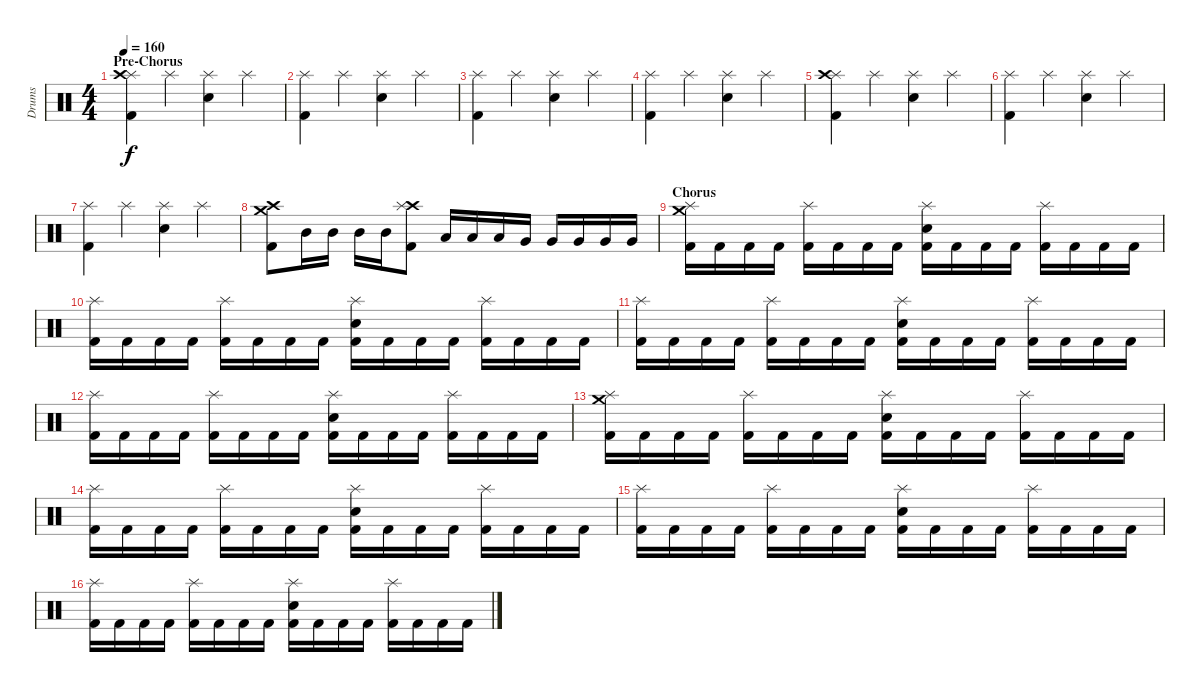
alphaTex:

\track ("Drums" "Drums") {instrument percussion}
\staff {score}
\articulation defaults
\ts (4 4)
\section ("" "Pre-Chorus")
\tempo 160
\clef neutral
\ks c
("Splash (hit)" "Crash high (hit)" "Kick (hit) 2").4{dy f} "Splash (hit)".4 ("Splash (hit)" "Snare (hit) 2").4 "Splash (hit)".4 |
("Splash (hit)" "Kick (hit) 2").4 "Splash (hit)".4 ("Splash (hit)" "Snare (hit) 2").4 "Splash (hit)".4 |
("Splash (hit)" "Kick (hit) 2").4 "Splash (hit)".4 ("Splash (hit)" "Snare (hit) 2").4 "Splash (hit)".4 |
("Splash (hit)" "Kick (hit) 2").4 "Splash (hit)".4 ("Splash (hit)" "Snare (hit) 2").4 "Splash (hit)".4 |
("Splash (hit)" "Crash high (hit)" "Kick (hit) 2").4 "Splash (hit)".4 ("Splash (hit)" "Snare (hit) 2").4 "Splash (hit)".4 |
("Splash (hit)" "Kick (hit) 2").4 "Splash (hit)".4 ("Splash (hit)" "Snare (hit) 2").4 "Splash (hit)".4 |
("Splash (hit)" "Kick (hit) 2").4 "Splash (hit)".4 ("Splash (hit)" "Snare (hit) 2").4 "Splash (hit)".4 |
("Crash medium (hit)" "Crash high (hit)" "Kick (hit) 2").8 "Mid Tom (hit)".16 "Mid Tom (hit)".16 "Mid Tom (hit)".16 "Mid Tom (hit)".16 ("Crash high (hit)" "Splash (hit)" "Kick (hit) 2").8 "Low Tom (hit)".16 "Low Tom (hit)".16 "Low Tom (hit)".16 "Very Low Tom (hit)".16 "Very Low Tom (hit)".16 "Very Low Tom (hit)".16 "Very Low Tom (hit)".16 "Very Low Tom (hit)".16 |
\section ("" "Chorus")
("Splash (hit)" "Crash medium (hit)" "Kick (hit) 2").16 "Kick (hit) 2".16 "Kick (hit) 2".16 "Kick (hit) 2".16 ("Splash (hit)" "Kick (hit) 2").16 "Kick (hit) 2".16 "Kick (hit) 2".16 "Kick (hit) 2".16 ("Splash (hit)" "Snare (hit) 2" "Kick (hit) 2").16 "Kick (hit) 2".16 "Kick (hit) 2".16 "Kick (hit) 2".16 ("Splash (hit)" "Kick (hit) 2").16 "Kick (hit) 2".16 "Kick (hit) 2".16 "Kick (hit) 2".16 |
("Splash (hit)" "Kick (hit) 2").16 "Kick (hit) 2".16 "Kick (hit) 2".16 "Kick (hit) 2".16 ("Splash (hit)" "Kick (hit) 2").16 "Kick (hit) 2".16 "Kick (hit) 2".16 "Kick (hit) 2".16 ("Splash (hit)" "Snare (hit) 2" "Kick (hit) 2").16 "Kick (hit) 2".16 "Kick (hit) 2".16 "Kick (hit) 2".16 ("Splash (hit)" "Kick (hit) 2").16 "Kick (hit) 2".16 "Kick (hit) 2".16 "Kick (hit) 2".16 |
("Splash (hit)" "Kick (hit) 2").16 "Kick (hit) 2".16 "Kick (hit) 2".16 "Kick (hit) 2".16 ("Splash (hit)" "Kick (hit) 2").16 "Kick (hit) 2".16 "Kick (hit) 2".16 "Kick (hit) 2".16 ("Splash (hit)" "Snare (hit) 2" "Kick (hit) 2").16 "Kick (hit) 2".16 "Kick (hit) 2".16 "Kick (hit) 2".16 ("Splash (hit)" "Kick (hit) 2").16 "Kick (hit) 2".16 "Kick (hit) 2".16 "Kick (hit) 2".16 |
("Splash (hit)" "Kick (hit) 2").16 "Kick (hit) 2".16 "Kick (hit) 2".16 "Kick (hit) 2".16 ("Splash (hit)" "Kick (hit) 2").16 "Kick (hit) 2".16 "Kick (hit) 2".16 "Kick (hit) 2".16 ("Splash (hit)" "Snare (hit) 2" "Kick (hit) 2").16 "Kick (hit) 2".16 "Kick (hit) 2".16 "Kick (hit) 2".16 ("Splash (hit)" "Kick (hit) 2").16 "Kick (hit) 2".16 "Kick (hit) 2".16 "Kick (hit) 2".16 |
("Splash (hit)" "Crash medium (hit)" "Kick (hit) 2").16 "Kick (hit) 2".16 "Kick (hit) 2".16 "Kick (hit) 2".16 ("Splash (hit)" "Kick (hit) 2").16 "Kick (hit) 2".16 "Kick (hit) 2".16 "Kick (hit) 2".16 ("Splash (hit)" "Snare (hit) 2" "Kick (hit) 2").16 "Kick (hit) 2".16 "Kick (hit) 2".16 "Kick (hit) 2".16 ("Splash (hit)" "Kick (hit) 2").16 "Kick (hit) 2".16 "Kick (hit) 2".16 "Kick (hit) 2".16 |
("Splash (hit)" "Kick (hit) 2").16 "Kick (hit) 2".16 "Kick (hit) 2".16 "Kick (hit) 2".16 ("Splash (hit)" "Kick (hit) 2").16 "Kick (hit) 2".16 "Kick (hit) 2".16 "Kick (hit) 2".16 ("Splash (hit)" "Snare (hit) 2" "Kick (hit) 2").16 "Kick (hit) 2".16 "Kick (hit) 2".16 "Kick (hit) 2".16 ("Splash (hit)" "Kick (hit) 2").16 "Kick (hit) 2".16 "Kick (hit) 2".16 "Kick (hit) 2".16 |
("Splash (hit)" "Kick (hit) 2").16 "Kick (hit) 2".16 "Kick (hit) 2".16 "Kick (hit) 2".16 ("Splash (hit)" "Kick (hit) 2").16 "Kick (hit) 2".16 "Kick (hit) 2".16 "Kick (hit) 2".16 ("Splash (hit)" "Snare (hit) 2" "Kick (hit) 2").16 "Kick (hit) 2".16 "Kick (hit) 2".16 "Kick (hit) 2".16 ("Splash (hit)" "Kick (hit) 2").16 "Kick (hit) 2".16 "Kick (hit) 2".16 "Kick (hit) 2".16 |
("Splash (hit)" "Kick (hit) 2").16 "Kick (hit) 2".16 "Kick (hit) 2".16 "Kick (hit) 2".16 ("Splash (hit)" "Kick (hit) 2").16 "Kick (hit) 2".16 "Kick (hit) 2".16 "Kick (hit) 2".16 ("Splash (hit)" "Snare (hit) 2" "Kick (hit) 2").16 "Kick (hit) 2".16 "Kick (hit) 2".16 "Kick (hit) 2".16 ("Splash (hit)" "Kick (hit) 2").16 "Kick (hit) 2".16 "Kick (hit) 2".16 "Kick (hit) 2".16
